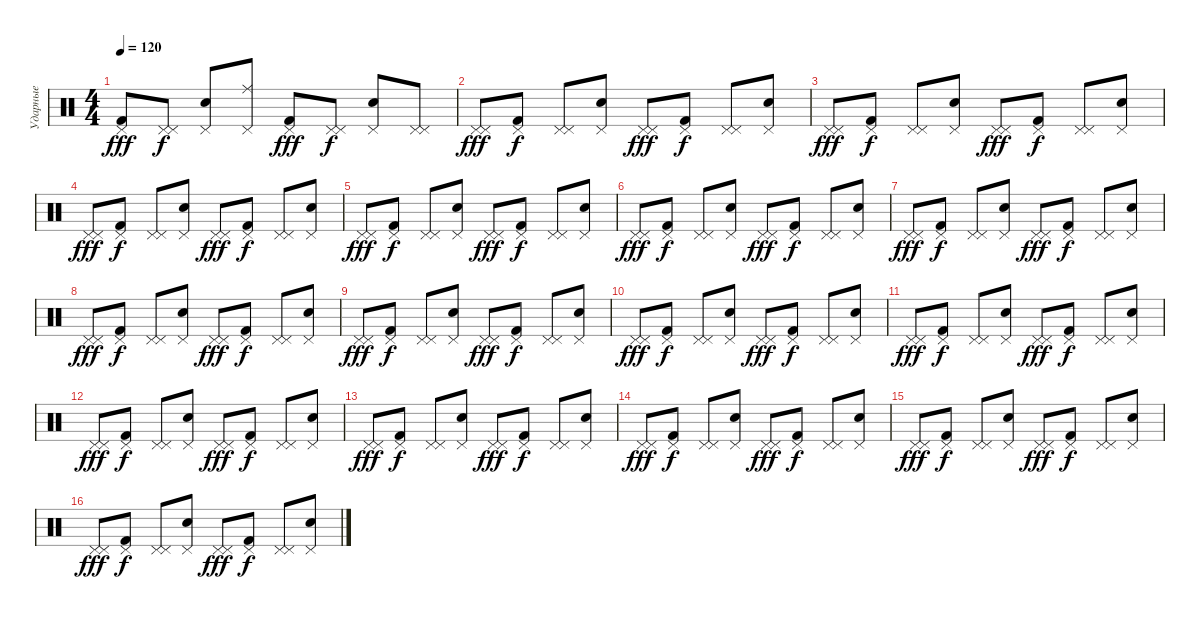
\track ("Ударные" "Ударные") {instrument percussion}
\staff {score}
\articulation defaults
\ts (4 4)
\tempo 120
\clef neutral
\ks c
("Pedal Hi-Hat (hit)" "Kick (hit) 2").8{dy fff} ("Pedal Hi-Hat (hit)" "Pedal Hi-Hat (hit)").8{dy f} ("Pedal Hi-Hat (hit)" "Hand Clap (hit)").8 ("Pedal Hi-Hat (hit)" "Ride (middle)").8 ("Pedal Hi-Hat (hit)" "Kick (hit) 2").8{dy fff} ("Pedal Hi-Hat (hit)" "Pedal Hi-Hat (hit)").8{dy f} ("Pedal Hi-Hat (hit)" "Hand Clap (hit)").8 ("Pedal Hi-Hat (hit)" "Pedal Hi-Hat (hit)").8 |
("Pedal Hi-Hat (hit)" "Pedal Hi-Hat (hit)").8{dy fff} ("Pedal Hi-Hat (hit)" "Kick (hit) 2").8{dy f} ("Pedal Hi-Hat (hit)" "Pedal Hi-Hat (hit)").8 ("Pedal Hi-Hat (hit)" "Hand Clap (hit)").8 ("Pedal Hi-Hat (hit)" "Pedal Hi-Hat (hit)").8{dy fff} ("Pedal Hi-Hat (hit)" "Kick (hit) 2").8{dy f} ("Pedal Hi-Hat (hit)" "Pedal Hi-Hat (hit)").8 ("Pedal Hi-Hat (hit)" "Hand Clap (hit)").8 |
("Pedal Hi-Hat (hit)" "Pedal Hi-Hat (hit)").8{dy fff} ("Pedal Hi-Hat (hit)" "Kick (hit) 2").8{dy f} ("Pedal Hi-Hat (hit)" "Pedal Hi-Hat (hit)").8 ("Pedal Hi-Hat (hit)" "Hand Clap (hit)").8 ("Pedal Hi-Hat (hit)" "Pedal Hi-Hat (hit)").8{dy fff} ("Pedal Hi-Hat (hit)" "Kick (hit) 2").8{dy f} ("Pedal Hi-Hat (hit)" "Pedal Hi-Hat (hit)").8 ("Pedal Hi-Hat (hit)" "Hand Clap (hit)").8 |
("Pedal Hi-Hat (hit)" "Pedal Hi-Hat (hit)").8{dy fff} ("Pedal Hi-Hat (hit)" "Kick (hit) 2").8{dy f} ("Pedal Hi-Hat (hit)" "Pedal Hi-Hat (hit)").8 ("Pedal Hi-Hat (hit)" "Hand Clap (hit)").8 ("Pedal Hi-Hat (hit)" "Pedal Hi-Hat (hit)").8{dy fff} ("Pedal Hi-Hat (hit)" "Kick (hit) 2").8{dy f} ("Pedal Hi-Hat (hit)" "Pedal Hi-Hat (hit)").8 ("Pedal Hi-Hat (hit)" "Hand Clap (hit)").8 |
("Pedal Hi-Hat (hit)" "Pedal Hi-Hat (hit)").8{dy fff} ("Pedal Hi-Hat (hit)" "Kick (hit) 2").8{dy f} ("Pedal Hi-Hat (hit)" "Pedal Hi-Hat (hit)").8 ("Pedal Hi-Hat (hit)" "Hand Clap (hit)").8 ("Pedal Hi-Hat (hit)" "Pedal Hi-Hat (hit)").8{dy fff} ("Pedal Hi-Hat (hit)" "Kick (hit) 2").8{dy f} ("Pedal Hi-Hat (hit)" "Pedal Hi-Hat (hit)").8 ("Pedal Hi-Hat (hit)" "Hand Clap (hit)").8 |
("Pedal Hi-Hat (hit)" "Pedal Hi-Hat (hit)").8{dy fff} ("Pedal Hi-Hat (hit)" "Kick (hit) 2").8{dy f} ("Pedal Hi-Hat (hit)" "Pedal Hi-Hat (hit)").8 ("Pedal Hi-Hat (hit)" "Hand Clap (hit)").8 ("Pedal Hi-Hat (hit)" "Pedal Hi-Hat (hit)").8{dy fff} ("Pedal Hi-Hat (hit)" "Kick (hit) 2").8{dy f} ("Pedal Hi-Hat (hit)" "Pedal Hi-Hat (hit)").8 ("Pedal Hi-Hat (hit)" "Hand Clap (hit)").8 |
("Pedal Hi-Hat (hit)" "Pedal Hi-Hat (hit)").8{dy fff} ("Pedal Hi-Hat (hit)" "Kick (hit) 2").8{dy f} ("Pedal Hi-Hat (hit)" "Pedal Hi-Hat (hit)").8 ("Pedal Hi-Hat (hit)" "Hand Clap (hit)").8 ("Pedal Hi-Hat (hit)" "Pedal Hi-Hat (hit)").8{dy fff} ("Pedal Hi-Hat (hit)" "Kick (hit) 2").8{dy f} ("Pedal Hi-Hat (hit)" "Pedal Hi-Hat (hit)").8 ("Pedal Hi-Hat (hit)" "Hand Clap (hit)").8 |
("Pedal Hi-Hat (hit)" "Pedal Hi-Hat (hit)").8{dy fff} ("Pedal Hi-Hat (hit)" "Kick (hit) 2").8{dy f} ("Pedal Hi-Hat (hit)" "Pedal Hi-Hat (hit)").8 ("Pedal Hi-Hat (hit)" "Hand Clap (hit)").8 ("Pedal Hi-Hat (hit)" "Pedal Hi-Hat (hit)").8{dy fff} ("Pedal Hi-Hat (hit)" "Kick (hit) 2").8{dy f} ("Pedal Hi-Hat (hit)" "Pedal Hi-Hat (hit)").8 ("Pedal Hi-Hat (hit)" "Hand Clap (hit)").8 |
("Pedal Hi-Hat (hit)" "Pedal Hi-Hat (hit)").8{dy fff} ("Pedal Hi-Hat (hit)" "Kick (hit) 2").8{dy f} ("Pedal Hi-Hat (hit)" "Pedal Hi-Hat (hit)").8 ("Pedal Hi-Hat (hit)" "Hand Clap (hit)").8 ("Pedal Hi-Hat (hit)" "Pedal Hi-Hat (hit)").8{dy fff} ("Pedal Hi-Hat (hit)" "Kick (hit) 2").8{dy f} ("Pedal Hi-Hat (hit)" "Pedal Hi-Hat (hit)").8 ("Pedal Hi-Hat (hit)" "Hand Clap (hit)").8 |
("Pedal Hi-Hat (hit)" "Pedal Hi-Hat (hit)").8{dy fff} ("Pedal Hi-Hat (hit)" "Kick (hit) 2").8{dy f} ("Pedal Hi-Hat (hit)" "Pedal Hi-Hat (hit)").8 ("Pedal Hi-Hat (hit)" "Hand Clap (hit)").8 ("Pedal Hi-Hat (hit)" "Pedal Hi-Hat (hit)").8{dy fff} ("Pedal Hi-Hat (hit)" "Kick (hit) 2").8{dy f} ("Pedal Hi-Hat (hit)" "Pedal Hi-Hat (hit)").8 ("Pedal Hi-Hat (hit)" "Hand Clap (hit)").8 |
("Pedal Hi-Hat (hit)" "Pedal Hi-Hat (hit)").8{dy fff} ("Pedal Hi-Hat (hit)" "Kick (hit) 2").8{dy f} ("Pedal Hi-Hat (hit)" "Pedal Hi-Hat (hit)").8 ("Pedal Hi-Hat (hit)" "Hand Clap (hit)").8 ("Pedal Hi-Hat (hit)" "Pedal Hi-Hat (hit)").8{dy fff} ("Pedal Hi-Hat (hit)" "Kick (hit) 2").8{dy f} ("Pedal Hi-Hat (hit)" "Pedal Hi-Hat (hit)").8 ("Pedal Hi-Hat (hit)" "Hand Clap (hit)").8 |
("Pedal Hi-Hat (hit)" "Pedal Hi-Hat (hit)").8{dy fff} ("Pedal Hi-Hat (hit)" "Kick (hit) 2").8{dy f} ("Pedal Hi-Hat (hit)" "Pedal Hi-Hat (hit)").8 ("Pedal Hi-Hat (hit)" "Hand Clap (hit)").8 ("Pedal Hi-Hat (hit)" "Pedal Hi-Hat (hit)").8{dy fff} ("Pedal Hi-Hat (hit)" "Kick (hit) 2").8{dy f} ("Pedal Hi-Hat (hit)" "Pedal Hi-Hat (hit)").8 ("Pedal Hi-Hat (hit)" "Hand Clap (hit)").8 |
("Pedal Hi-Hat (hit)" "Pedal Hi-Hat (hit)").8{dy fff} ("Pedal Hi-Hat (hit)" "Kick (hit) 2").8{dy f} ("Pedal Hi-Hat (hit)" "Pedal Hi-Hat (hit)").8 ("Pedal Hi-Hat (hit)" "Hand Clap (hit)").8 ("Pedal Hi-Hat (hit)" "Pedal Hi-Hat (hit)").8{dy fff} ("Pedal Hi-Hat (hit)" "Kick (hit) 2").8{dy f} ("Pedal Hi-Hat (hit)" "Pedal Hi-Hat (hit)").8 ("Pedal Hi-Hat (hit)" "Hand Clap (hit)").8 |
("Pedal Hi-Hat (hit)" "Pedal Hi-Hat (hit)").8{dy fff} ("Pedal Hi-Hat (hit)" "Kick (hit) 2").8{dy f} ("Pedal Hi-Hat (hit)" "Pedal Hi-Hat (hit)").8 ("Pedal Hi-Hat (hit)" "Hand Clap (hit)").8 ("Pedal Hi-Hat (hit)" "Pedal Hi-Hat (hit)").8{dy fff} ("Pedal Hi-Hat (hit)" "Kick (hit) 2").8{dy f} ("Pedal Hi-Hat (hit)" "Pedal Hi-Hat (hit)").8 ("Pedal Hi-Hat (hit)" "Hand Clap (hit)").8 |
("Pedal Hi-Hat (hit)" "Pedal Hi-Hat (hit)").8{dy fff} ("Pedal Hi-Hat (hit)" "Kick (hit) 2").8{dy f} ("Pedal Hi-Hat (hit)" "Pedal Hi-Hat (hit)").8 ("Pedal Hi-Hat (hit)" "Hand Clap (hit)").8 ("Pedal Hi-Hat (hit)" "Pedal Hi-Hat (hit)").8{dy fff} ("Pedal Hi-Hat (hit)" "Kick (hit) 2").8{dy f} ("Pedal Hi-Hat (hit)" "Pedal Hi-Hat (hit)").8 ("Pedal Hi-Hat (hit)" "Hand Clap (hit)").8 |
("Pedal Hi-Hat (hit)" "Pedal Hi-Hat (hit)").8{dy fff} ("Pedal Hi-Hat (hit)" "Kick (hit) 2").8{dy f} ("Pedal Hi-Hat (hit)" "Pedal Hi-Hat (hit)").8 ("Pedal Hi-Hat (hit)" "Hand Clap (hit)").8 ("Pedal Hi-Hat (hit)" "Pedal Hi-Hat (hit)").8{dy fff} ("Pedal Hi-Hat (hit)" "Kick (hit) 2").8{dy f} ("Pedal Hi-Hat (hit)" "Pedal Hi-Hat (hit)").8 ("Pedal Hi-Hat (hit)" "Hand Clap (hit)").8
